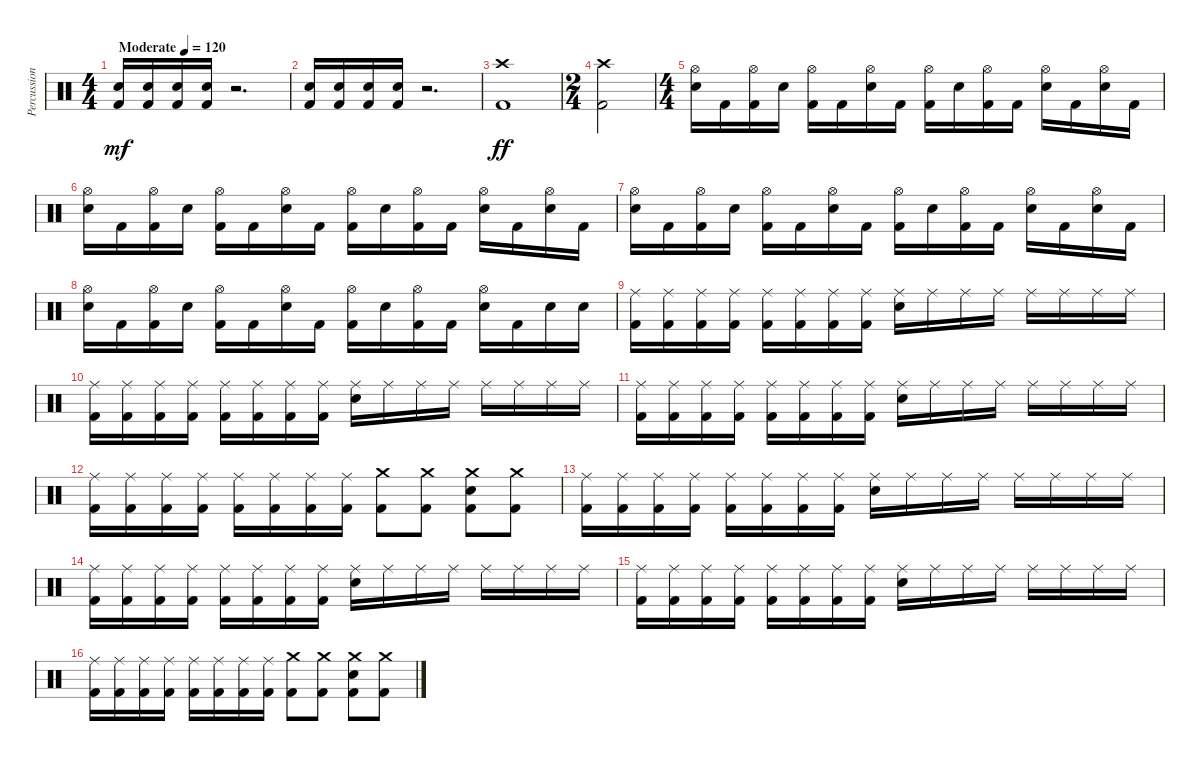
\track ("Percussion" "Percussion") {instrument percussion}
\staff {score}
\articulation defaults
\ts (4 4)
\tempo (120 "Moderate")
\clef neutral
\ks c
("Electric Snare (hit)" "Kick (hit) 2").16{dy mf} ("Electric Snare (hit)" "Kick (hit) 2").16 ("Electric Snare (hit)" "Kick (hit) 2").16 ("Electric Snare (hit)" "Kick (hit) 2").16 r.2{d} |
("Electric Snare (hit)" "Kick (hit) 2").16 ("Electric Snare (hit)" "Kick (hit) 2").16 ("Electric Snare (hit)" "Kick (hit) 2").16 ("Electric Snare (hit)" "Kick (hit) 2").16 r.2{d} |
("Crash high (hit)" "Kick (hit) 2").1{dy ff} |
\ts (2 4)
("Crash high (hit)" "Kick (hit) 2").2{volume 13} |
\ts (4 4)
("Hi-Hat (open)" "Electric Snare (hit)").16 "Kick (hit) 2".16 ("Hi-Hat (open)" "Kick (hit) 2").16 "Electric Snare (hit)".16 ("Hi-Hat (open)" "Kick (hit) 2").16 "Kick (hit) 2".16 ("Hi-Hat (open)" "Electric Snare (hit)").16 "Kick (hit) 2".16 ("Hi-Hat (open)" "Kick (hit) 2").16 "Electric Snare (hit)".16 ("Hi-Hat (open)" "Kick (hit) 2").16 "Kick (hit) 2".16 ("Hi-Hat (open)" "Electric Snare (hit)").16 "Kick (hit) 2".16 ("Hi-Hat (open)" "Electric Snare (hit)").16 "Kick (hit) 2".16 |
("Hi-Hat (open)" "Electric Snare (hit)").16 "Kick (hit) 2".16 ("Hi-Hat (open)" "Kick (hit) 2").16 "Electric Snare (hit)".16 ("Hi-Hat (open)" "Kick (hit) 2").16 "Kick (hit) 2".16 ("Hi-Hat (open)" "Electric Snare (hit)").16 "Kick (hit) 2".16 ("Hi-Hat (open)" "Kick (hit) 2").16 "Electric Snare (hit)".16 ("Hi-Hat (open)" "Kick (hit) 2").16 "Kick (hit) 2".16 ("Hi-Hat (open)" "Electric Snare (hit)").16 "Kick (hit) 2".16 ("Hi-Hat (open)" "Electric Snare (hit)").16 "Kick (hit) 2".16 |
("Hi-Hat (open)" "Electric Snare (hit)").16 "Kick (hit) 2".16 ("Hi-Hat (open)" "Kick (hit) 2").16 "Electric Snare (hit)".16 ("Hi-Hat (open)" "Kick (hit) 2").16 "Kick (hit) 2".16 ("Hi-Hat (open)" "Electric Snare (hit)").16 "Kick (hit) 2".16 ("Hi-Hat (open)" "Kick (hit) 2").16 "Electric Snare (hit)".16 ("Hi-Hat (open)" "Kick (hit) 2").16 "Kick (hit) 2".16 ("Hi-Hat (open)" "Electric Snare (hit)").16 "Kick (hit) 2".16 ("Hi-Hat (open)" "Electric Snare (hit)").16 "Kick (hit) 2".16 |
("Hi-Hat (open)" "Electric Snare (hit)").16 "Kick (hit) 2".16 ("Hi-Hat (open)" "Kick (hit) 2").16 "Electric Snare (hit)".16 ("Hi-Hat (open)" "Kick (hit) 2").16 "Kick (hit) 2".16 ("Hi-Hat (open)" "Electric Snare (hit)").16 "Kick (hit) 2".16 ("Hi-Hat (open)" "Kick (hit) 2").16 "Electric Snare (hit)".16 ("Hi-Hat (open)" "Kick (hit) 2").16 "Kick (hit) 2".16 ("Hi-Hat (open)" "Electric Snare (hit)").16 "Kick (hit) 2".16 "Electric Snare (hit)".16 "Electric Snare (hit)".16 |
("Ride (middle)" "Kick (hit) 2").16 ("Ride (middle)" "Kick (hit) 2").16 ("Ride (middle)" "Kick (hit) 2").16 ("Ride (middle)" "Kick (hit) 2").16 ("Ride (middle)" "Kick (hit) 2").16 ("Ride (middle)" "Kick (hit) 2").16 ("Ride (middle)" "Kick (hit) 2").16 ("Ride (middle)" "Kick (hit) 2").16 ("Ride (middle)" "Electric Snare (hit)").16 "Ride (middle)".16 "Ride (middle)".16 "Ride (middle)".16 "Ride (middle)".16 "Ride (middle)".16 "Ride (middle)".16 "Ride (middle)".16 |
("Ride (middle)" "Kick (hit) 2").16 ("Ride (middle)" "Kick (hit) 2").16 ("Ride (middle)" "Kick (hit) 2").16 ("Ride (middle)" "Kick (hit) 2").16 ("Ride (middle)" "Kick (hit) 2").16 ("Ride (middle)" "Kick (hit) 2").16 ("Ride (middle)" "Kick (hit) 2").16 ("Ride (middle)" "Kick (hit) 2").16 ("Ride (middle)" "Electric Snare (hit)").16 "Ride (middle)".16 "Ride (middle)".16 "Ride (middle)".16 "Ride (middle)".16 "Ride (middle)".16 "Ride (middle)".16 "Ride (middle)".16 |
("Ride (middle)" "Kick (hit) 2").16 ("Ride (middle)" "Kick (hit) 2").16 ("Ride (middle)" "Kick (hit) 2").16 ("Ride (middle)" "Kick (hit) 2").16 ("Ride (middle)" "Kick (hit) 2").16 ("Ride (middle)" "Kick (hit) 2").16 ("Ride (middle)" "Kick (hit) 2").16 ("Ride (middle)" "Kick (hit) 2").16 ("Ride (middle)" "Electric Snare (hit)").16 "Ride (middle)".16 "Ride (middle)".16 "Ride (middle)".16 "Ride (middle)".16 "Ride (middle)".16 "Ride (middle)".16 "Ride (middle)".16 |
("Ride (middle)" "Kick (hit) 2").16 ("Ride (middle)" "Kick (hit) 2").16 ("Ride (middle)" "Kick (hit) 2").16 ("Ride (middle)" "Kick (hit) 2").16 ("Ride (middle)" "Kick (hit) 2").16 ("Ride (middle)" "Kick (hit) 2").16 ("Ride (middle)" "Kick (hit) 2").16 ("Ride (middle)" "Kick (hit) 2").16 ("Crash medium (hit)" "Kick (hit) 2").8 ("Crash medium (hit)" "Kick (hit) 2").8 ("Crash medium (hit)" "Electric Snare (hit)" "Kick (hit) 2").8 ("Crash medium (hit)" "Kick (hit) 2").8 |
("Ride (middle)" "Kick (hit) 2").16 ("Ride (middle)" "Kick (hit) 2").16 ("Ride (middle)" "Kick (hit) 2").16 ("Ride (middle)" "Kick (hit) 2").16 ("Ride (middle)" "Kick (hit) 2").16 ("Ride (middle)" "Kick (hit) 2").16 ("Ride (middle)" "Kick (hit) 2").16 ("Ride (middle)" "Kick (hit) 2").16 ("Ride (middle)" "Electric Snare (hit)").16 "Ride (middle)".16 "Ride (middle)".16 "Ride (middle)".16 "Ride (middle)".16 "Ride (middle)".16 "Ride (middle)".16 "Ride (middle)".16 |
("Ride (middle)" "Kick (hit) 2").16 ("Ride (middle)" "Kick (hit) 2").16 ("Ride (middle)" "Kick (hit) 2").16 ("Ride (middle)" "Kick (hit) 2").16 ("Ride (middle)" "Kick (hit) 2").16 ("Ride (middle)" "Kick (hit) 2").16 ("Ride (middle)" "Kick (hit) 2").16 ("Ride (middle)" "Kick (hit) 2").16 ("Ride (middle)" "Electric Snare (hit)").16 "Ride (middle)".16 "Ride (middle)".16 "Ride (middle)".16 "Ride (middle)".16 "Ride (middle)".16 "Ride (middle)".16 "Ride (middle)".16 |
("Ride (middle)" "Kick (hit) 2").16 ("Ride (middle)" "Kick (hit) 2").16 ("Ride (middle)" "Kick (hit) 2").16 ("Ride (middle)" "Kick (hit) 2").16 ("Ride (middle)" "Kick (hit) 2").16 ("Ride (middle)" "Kick (hit) 2").16 ("Ride (middle)" "Kick (hit) 2").16 ("Ride (middle)" "Kick (hit) 2").16 ("Ride (middle)" "Electric Snare (hit)").16 "Ride (middle)".16 "Ride (middle)".16 "Ride (middle)".16 "Ride (middle)".16 "Ride (middle)".16 "Ride (middle)".16 "Ride (middle)".16 |
("Ride (middle)" "Kick (hit) 2").16 ("Ride (middle)" "Kick (hit) 2").16 ("Ride (middle)" "Kick (hit) 2").16 ("Ride (middle)" "Kick (hit) 2").16 ("Ride (middle)" "Kick (hit) 2").16 ("Ride (middle)" "Kick (hit) 2").16 ("Ride (middle)" "Kick (hit) 2").16 ("Ride (middle)" "Kick (hit) 2").16 ("Crash medium (hit)" "Kick (hit) 2").8 ("Crash medium (hit)" "Kick (hit) 2").8 ("Crash medium (hit)" "Electric Snare (hit)" "Kick (hit) 2").8 ("Crash medium (hit)" "Kick (hit) 2").8
